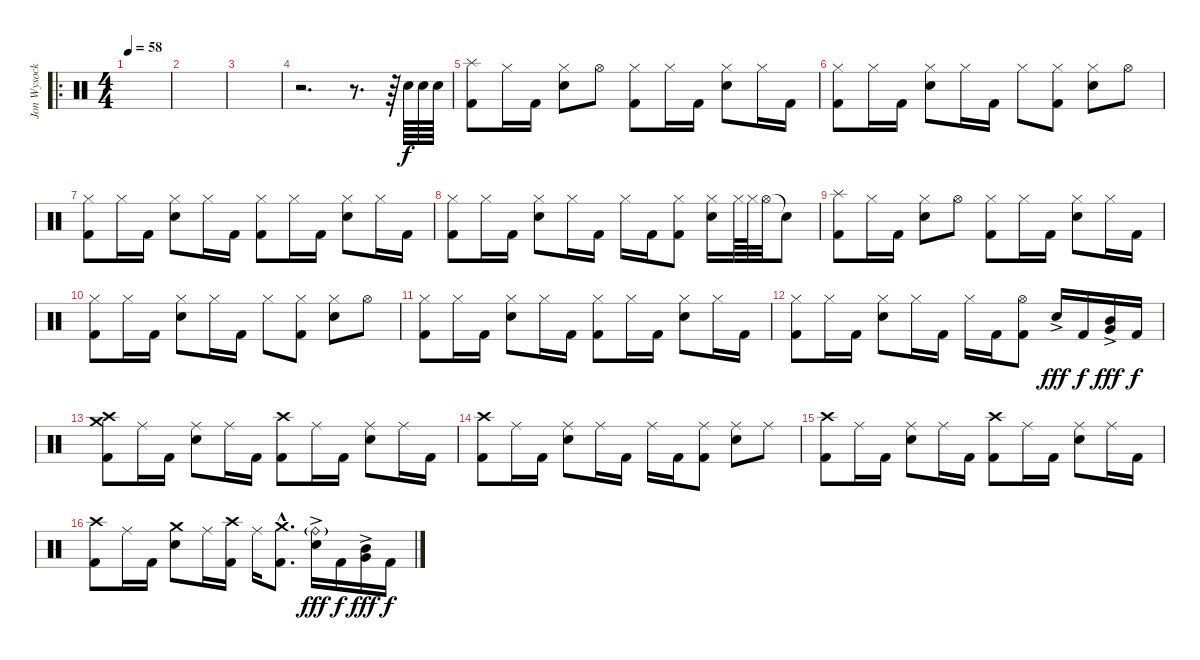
\track ("Jon Wysocki  (Drums)" "Jon Wysock") {instrument percussion}
\staff {score}
\articulation defaults
\ro
\ts (4 4)
\tempo 58
\clef neutral
\ks c
|
|
|
r.2{d} r.8{d} r.64 "Snare (hit) 2".64 "Snare (hit) 2".64 "Snare (hit) 2".64 |
("Splash (hit)" "Kick (hit) 2").8 "Hi-Hat (closed)".16 "Kick (hit) 2".16 ("Hi-Hat (closed)" "Electric Snare (hit)").8 "Hi-Hat (open)".8 ("Hi-Hat (closed)" "Kick (hit) 2").8 "Hi-Hat (closed)".16 "Kick (hit) 2".16 ("Hi-Hat (closed)" "Electric Snare (hit)").8 "Hi-Hat (closed)".16 "Kick (hit) 2".16 |
("Hi-Hat (closed)" "Kick (hit) 2").8 "Hi-Hat (closed)".16 "Kick (hit) 2".16 ("Hi-Hat (closed)" "Electric Snare (hit)").8 "Hi-Hat (closed)".16 "Kick (hit) 2".16 "Hi-Hat (closed)".8 ("Hi-Hat (closed)" "Kick (hit) 2").8 ("Hi-Hat (closed)" "Electric Snare (hit)").8 "Hi-Hat (open)".8 |
("Hi-Hat (closed)" "Kick (hit) 2").8 "Hi-Hat (closed)".16 "Kick (hit) 2".16 ("Hi-Hat (closed)" "Electric Snare (hit)").8 "Hi-Hat (closed)".16 "Kick (hit) 2".16 ("Hi-Hat (closed)" "Kick (hit) 2").8 "Hi-Hat (closed)".16 "Kick (hit) 2".16 ("Hi-Hat (closed)" "Electric Snare (hit)").8 "Hi-Hat (closed)".16 "Kick (hit) 2".16 |
("Hi-Hat (closed)" "Kick (hit) 2").8 "Hi-Hat (closed)".16 "Kick (hit) 2".16 ("Hi-Hat (closed)" "Electric Snare (hit)").8 "Hi-Hat (closed)".16 "Kick (hit) 2".16 "Hi-Hat (closed)".16 "Kick (hit) 2".16 ("Hi-Hat (closed)" "Kick (hit) 2").8 ("Hi-Hat (closed)" "Electric Snare (hit)").16 "Hi-Hat (closed)".64 "Hi-Hat (closed)".64 "Hi-Hat (open)".32 "Snare (hit)"{t}.8 |
("Splash (hit)" "Kick (hit) 2").8 "Hi-Hat (closed)".16 "Kick (hit) 2".16 ("Hi-Hat (closed)" "Electric Snare (hit)").8 "Hi-Hat (open)".8 ("Hi-Hat (closed)" "Kick (hit) 2").8 "Hi-Hat (closed)".16 "Kick (hit) 2".16 ("Hi-Hat (closed)" "Electric Snare (hit)").8 "Hi-Hat (closed)".16 "Kick (hit) 2".16 |
("Hi-Hat (closed)" "Kick (hit) 2").8 "Hi-Hat (closed)".16 "Kick (hit) 2".16 ("Hi-Hat (closed)" "Electric Snare (hit)").8 "Hi-Hat (closed)".16 "Kick (hit) 2".16 "Hi-Hat (closed)".8 ("Hi-Hat (closed)" "Kick (hit) 2").8 ("Hi-Hat (closed)" "Electric Snare (hit)").8 "Hi-Hat (open)".8 |
("Hi-Hat (closed)" "Kick (hit) 2").8 "Hi-Hat (closed)".16 "Kick (hit) 2".16 ("Hi-Hat (closed)" "Electric Snare (hit)").8 "Hi-Hat (closed)".16 "Kick (hit) 2".16 ("Hi-Hat (closed)" "Kick (hit) 2").8 "Hi-Hat (closed)".16 "Kick (hit) 2".16 ("Hi-Hat (closed)" "Electric Snare (hit)").8 "Hi-Hat (closed)".16 "Kick (hit) 2".16 |
("Hi-Hat (closed)" "Kick (hit) 2").8 "Hi-Hat (closed)".16 "Kick (hit) 2".16 ("Hi-Hat (closed)" "Electric Snare (hit)").8 "Hi-Hat (closed)".16 "Kick (hit) 2".16 "Hi-Hat (closed)".16 "Kick (hit) 2".16 ("Hi-Hat (open)" "Kick (hit) 2").8 "Electric Snare (hit)"{ac}.16{dy fff} "Kick (hit) 2".16{dy f} ("Mid Tom (hit)"{ac} "Very Low Tom (hit)").16{dy fff} "Kick (hit) 2".16{dy f} |
("Crash high (hit)" "Crash medium (hit)" "Kick (hit) 2").8 "Ride (middle)".16 "Kick (hit) 2".16 ("Ride (middle)" "Electric Snare (hit)").8 "Ride (middle)".16 "Kick (hit) 2".16 ("Crash high (hit)" "Kick (hit) 2").8 "Ride (middle)".16 "Kick (hit) 2".16 ("Ride (middle)" "Electric Snare (hit)").8 "Ride (middle)".16 "Kick (hit) 2".16 |
("Crash high (hit)" "Kick (hit) 2").8 "Ride (middle)".16 "Kick (hit) 2".16 ("Ride (middle)" "Electric Snare (hit)").8 "Ride (middle)".16 "Kick (hit) 2".16 "Ride (middle)".16 "Kick (hit) 2".16 ("Ride (middle)" "Kick (hit) 2").8 ("Ride (middle)" "Electric Snare (hit)").8 "Ride (middle)".8 |
("Crash high (hit)" "Kick (hit) 2").8 "Ride (middle)".16 "Kick (hit) 2".16 ("Ride (middle)" "Electric Snare (hit)").8 "Ride (middle)".16 "Kick (hit) 2".16 ("Crash high (hit)" "Kick (hit) 2").8 "Ride (middle)".16 "Kick (hit) 2".16 ("Ride (middle)" "Electric Snare (hit)").8 "Ride (middle)".16 "Kick (hit) 2".16 |
("Crash high (hit)" "Kick (hit) 2").8 "Ride (middle)".16 "Kick (hit) 2".16 ("Crash medium (hit)" "Electric Snare (hit)").8 "Ride (middle)".16 ("Crash high (hit)" "Kick (hit) 2").16 "Ride (middle)".16 ("Crash medium (hit)"{hac} "Kick (hit) 2"{hac}).8{d} ("Ride (bell)"{g} "Electric Snare (hit)"{ac}).16{dy fff} "Kick (hit) 2".16{dy f} ("Mid Tom (hit)"{ac} "Very Low Tom (hit)"{ac}).16{dy fff} "Kick (hit) 2".16{dy f}
